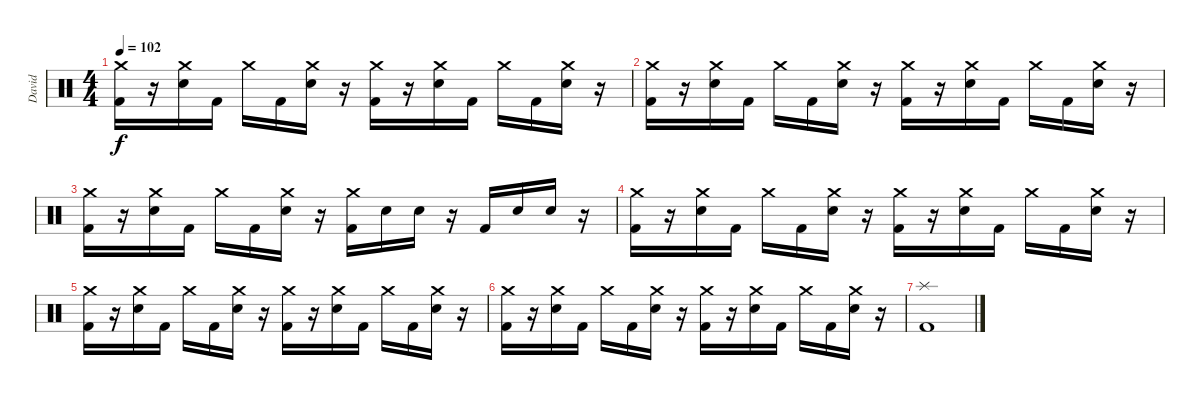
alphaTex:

\track ("David" "David") {instrument percussion}
\staff {score}
\articulation defaults
\ts (4 4)
\tempo 102
\clef neutral
\ks c
("Crash medium (hit)" "Kick (hit) 2").16{dy f} r.16 ("Crash medium (hit)" "Electric Snare (hit)").16 "Kick (hit) 2".16 "Crash medium (hit)".16 "Kick (hit) 2".16 ("Crash medium (hit)" "Electric Snare (hit)").16 r.16 ("Crash medium (hit)" "Kick (hit) 2").16 r.16 ("Crash medium (hit)" "Electric Snare (hit)").16 "Kick (hit) 2".16 "Crash medium (hit)".16 "Kick (hit) 2".16 ("Crash medium (hit)" "Electric Snare (hit)").16 r.16 |
("Crash medium (hit)" "Kick (hit) 2").16 r.16 ("Crash medium (hit)" "Electric Snare (hit)").16 "Kick (hit) 2".16 "Crash medium (hit)".16 "Kick (hit) 2".16 ("Crash medium (hit)" "Electric Snare (hit)").16 r.16 ("Crash medium (hit)" "Kick (hit) 2").16 r.16 ("Crash medium (hit)" "Electric Snare (hit)").16 "Kick (hit) 2".16 "Crash medium (hit)".16 "Kick (hit) 2".16 ("Crash medium (hit)" "Electric Snare (hit)").16 r.16 |
("Crash medium (hit)" "Kick (hit) 2").16 r.16 ("Crash medium (hit)" "Electric Snare (hit)").16 "Kick (hit) 2".16 "Crash medium (hit)".16 "Kick (hit) 2".16 ("Crash medium (hit)" "Electric Snare (hit)").16 r.16 ("Crash medium (hit)" "Kick (hit) 2").16 "Electric Snare (hit)".16 "Electric Snare (hit)".16 r.16 "Kick (hit) 2".16 "Electric Snare (hit)".16 "Electric Snare (hit)".16 r.16 |
("Crash medium (hit)" "Kick (hit) 2").16 r.16 ("Crash medium (hit)" "Electric Snare (hit)").16 "Kick (hit) 2".16 "Crash medium (hit)".16 "Kick (hit) 2".16 ("Crash medium (hit)" "Electric Snare (hit)").16 r.16 ("Crash medium (hit)" "Kick (hit) 2").16 r.16 ("Crash medium (hit)" "Electric Snare (hit)").16 "Kick (hit) 2".16 "Crash medium (hit)".16 "Kick (hit) 2".16 ("Crash medium (hit)" "Electric Snare (hit)").16 r.16 |
("Crash medium (hit)" "Kick (hit) 2").16 r.16 ("Crash medium (hit)" "Electric Snare (hit)").16 "Kick (hit) 2".16 "Crash medium (hit)".16 "Kick (hit) 2".16 ("Crash medium (hit)" "Electric Snare (hit)").16 r.16 ("Crash medium (hit)" "Kick (hit) 2").16 r.16 ("Crash medium (hit)" "Electric Snare (hit)").16 "Kick (hit) 2".16 "Crash medium (hit)".16 "Kick (hit) 2".16 ("Crash medium (hit)" "Electric Snare (hit)").16 r.16 |
("Crash medium (hit)" "Kick (hit) 2").16 r.16 ("Crash medium (hit)" "Electric Snare (hit)").16 "Kick (hit) 2".16 "Crash medium (hit)".16 "Kick (hit) 2".16 ("Crash medium (hit)" "Electric Snare (hit)").16 r.16 ("Crash medium (hit)" "Kick (hit) 2").16 r.16 ("Crash medium (hit)" "Electric Snare (hit)").16 "Kick (hit) 2".16 "Crash medium (hit)".16 "Kick (hit) 2".16 ("Crash medium (hit)" "Electric Snare (hit)").16 r.16 |
("Splash (hit)" "Kick (hit) 2").1
